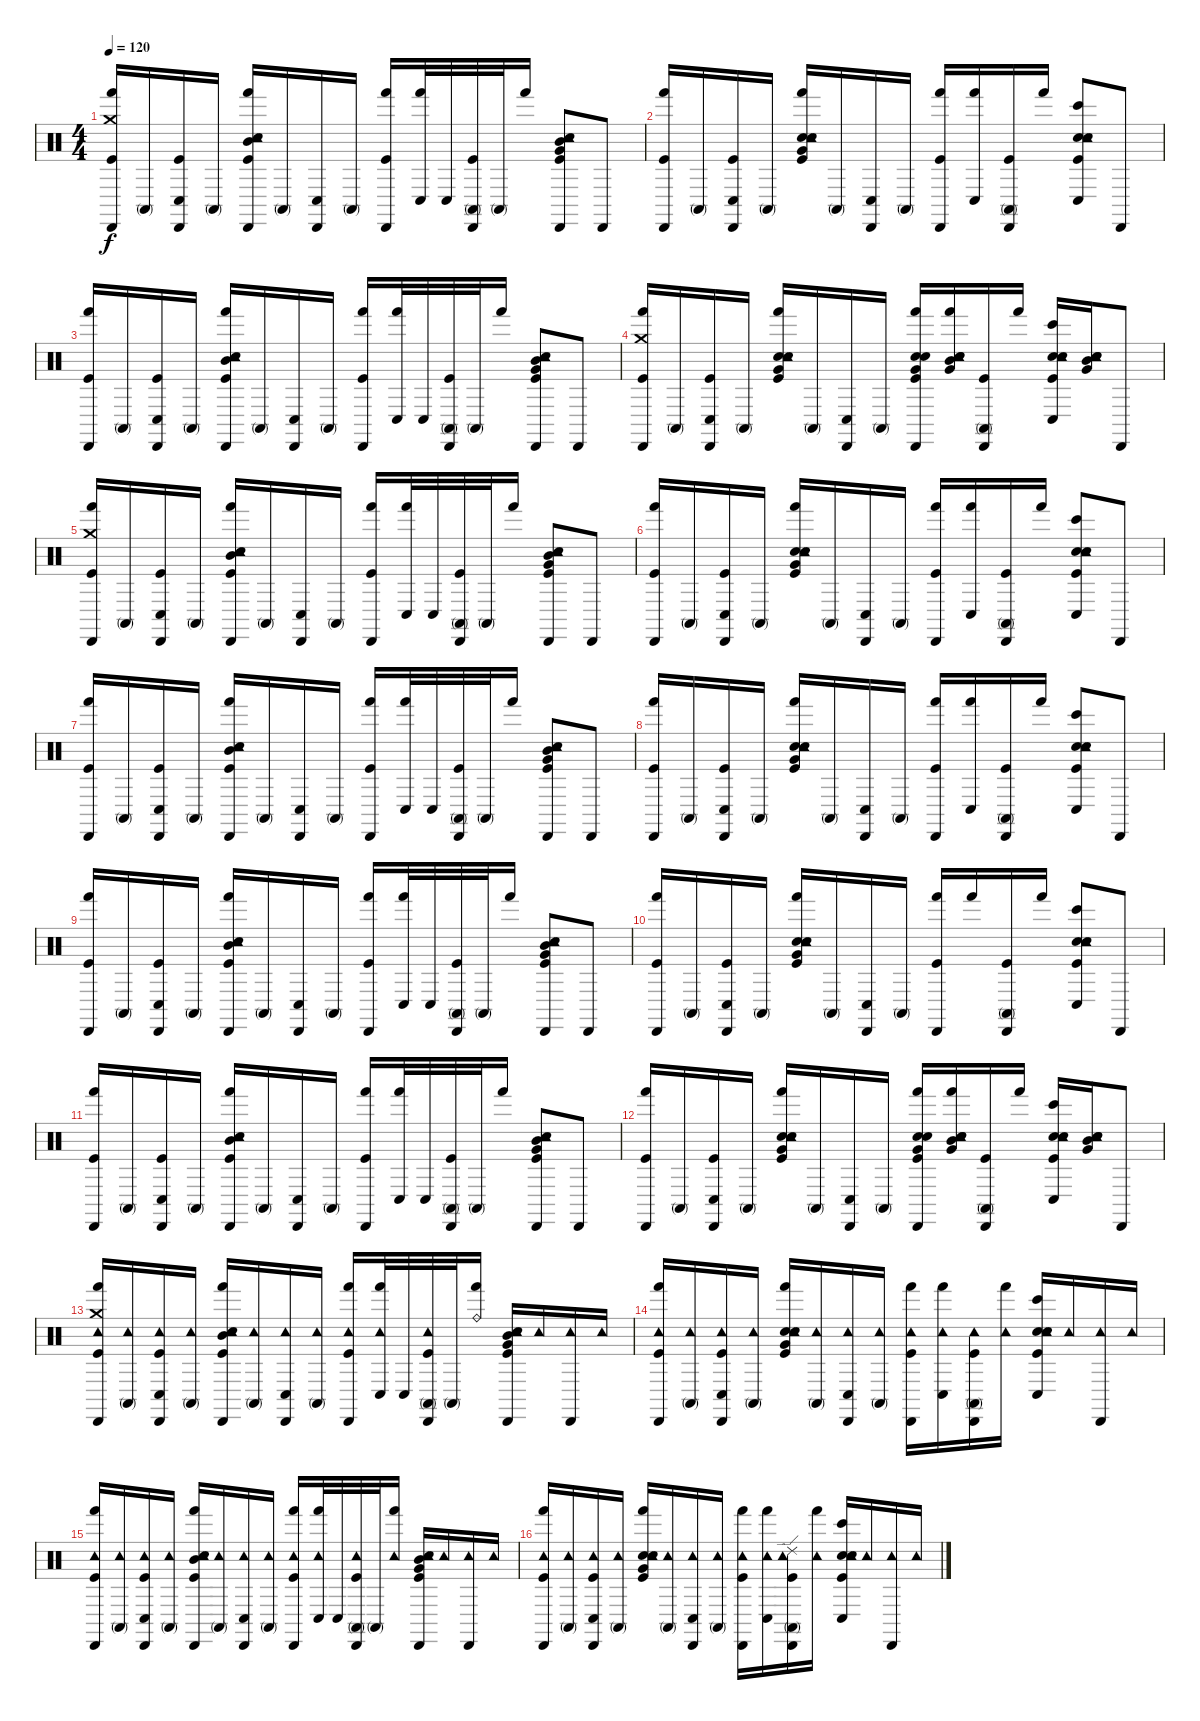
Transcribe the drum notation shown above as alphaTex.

\track "" {instrument percussion}
\staff {score}
\articulation defaults
\ts (4 4)
\tempo 120
\clef neutral
\ks c
("Hand (hit)" "Kick (hit)" "Cabasa (hit)" "Crash medium (hit)").16{dy f} "Conga high (mute)".16 ("Conga low (hit)" "Kick (hit)" "Cabasa (hit)").16 "Conga high (mute)".16 ("Hand (hit)" "Kick (hit)" "Tambourine (hit)" "Snare (hit) 2" "Cabasa (hit)" "Mid Tom (hit)").16 "Conga high (mute)".16 ("Conga low (hit)" "Cabasa (hit)").16 "Conga high (mute)".16 ("Hand (hit)" "Kick (hit)" "Cabasa (hit)").16 ("Conga low (hit)" "Hand (hit)").32 "Conga low (hit)".32 ("Conga high (mute)" "Kick (hit)" "Cabasa (hit)").32 "Conga high (mute)".32 "Hand (hit)".16 ("Kick (hit)" "Snare (hit) 2" "Tambourine (hit)" "Cabasa (hit)" "Mid Tom (hit)" "Very Low Tom (hit)").8 "Cabasa (hit)".8 |
("Hand (hit)" "Kick (hit)" "Cabasa (hit)").16 "Conga high (mute)".16 ("Conga low (hit)" "Kick (hit)" "Cabasa (hit)").16 "Conga high (mute)".16 ("Hand (hit)" "Kick (hit)" "Snare (hit) 2" "Tambourine (hit)" "Electric Snare (hit)" "Very Low Tom (hit)").16 "Conga high (mute)".16 ("Conga low (hit)" "Cabasa (hit)").16 "Conga high (mute)".16 ("Hand (hit)" "Kick (hit)" "Cabasa (hit)").16 ("Conga low (hit)" "Hand (hit)").16 ("Conga high (mute)" "Kick (hit)" "Cabasa (hit)").16 "Hand (hit)".16 ("Kick (hit)" "Snare (hit) 2" "Tambourine (hit)" "Bongo High (hit)" "Conga low (hit)" "Electric Snare (hit)").8 "Cabasa (hit)".8 |
("Hand (hit)" "Kick (hit)" "Cabasa (hit)").16 "Conga high (mute)".16 ("Conga low (hit)" "Kick (hit)" "Cabasa (hit)").16 "Conga high (mute)".16 ("Hand (hit)" "Kick (hit)" "Tambourine (hit)" "Snare (hit) 2" "Cabasa (hit)" "Mid Tom (hit)").16 "Conga high (mute)".16 ("Conga low (hit)" "Cabasa (hit)").16 "Conga high (mute)".16 ("Hand (hit)" "Kick (hit)" "Cabasa (hit)").16 ("Conga low (hit)" "Hand (hit)").32 "Conga low (hit)".32 ("Conga high (mute)" "Kick (hit)" "Cabasa (hit)").32 "Conga high (mute)".32 "Hand (hit)".16 ("Kick (hit)" "Snare (hit) 2" "Tambourine (hit)" "Cabasa (hit)" "Mid Tom (hit)" "Very Low Tom (hit)").8 "Cabasa (hit)".8 |
("Hand (hit)" "Kick (hit)" "Cabasa (hit)" "Crash medium (hit)").16 "Conga high (mute)".16 ("Conga low (hit)" "Kick (hit)" "Cabasa (hit)").16 "Conga high (mute)".16 ("Hand (hit)" "Kick (hit)" "Snare (hit) 2" "Tambourine (hit)" "Electric Snare (hit)" "Very Low Tom (hit)").16 "Conga high (mute)".16 ("Conga low (hit)" "Cabasa (hit)").16 "Conga high (mute)".16 ("Hand (hit)" "Kick (hit)" "Cabasa (hit)" "Electric Snare (hit)" "Snare (hit) 2" "Very Low Tom (hit)").16 ("Hand (hit)" "Snare (hit) 2" "Electric Snare (hit)" "Very Low Tom (hit)" "Mid Tom (hit)" "Tambourine (hit)").16 ("Conga high (mute)" "Kick (hit)" "Cabasa (hit)").16 "Hand (hit)".16 ("Kick (hit)" "Snare (hit) 2" "Tambourine (hit)" "Bongo High (hit)" "Conga low (hit)" "Electric Snare (hit)").16 ("Snare (hit) 2" "Electric Snare (hit)" "Very Low Tom (hit)" "Mid Tom (hit)" "Tambourine (hit)").16 "Cabasa (hit)".8 |
("Hand (hit)" "Kick (hit)" "Cabasa (hit)" "Crash medium (hit)").16 "Conga high (mute)".16 ("Conga low (hit)" "Kick (hit)" "Cabasa (hit)").16 "Conga high (mute)".16 ("Hand (hit)" "Kick (hit)" "Tambourine (hit)" "Snare (hit) 2" "Cabasa (hit)" "Mid Tom (hit)").16 "Conga high (mute)".16 ("Conga low (hit)" "Cabasa (hit)").16 "Conga high (mute)".16 ("Hand (hit)" "Kick (hit)" "Cabasa (hit)").16 ("Conga low (hit)" "Hand (hit)").32 "Conga low (hit)".32 ("Conga high (mute)" "Kick (hit)" "Cabasa (hit)").32 "Conga high (mute)".32 "Hand (hit)".16 ("Kick (hit)" "Snare (hit) 2" "Tambourine (hit)" "Cabasa (hit)" "Mid Tom (hit)" "Very Low Tom (hit)").8 "Cabasa (hit)".8 |
("Hand (hit)" "Kick (hit)" "Cabasa (hit)").16 "Conga high (mute)".16 ("Conga low (hit)" "Kick (hit)" "Cabasa (hit)").16 "Conga high (mute)".16 ("Hand (hit)" "Kick (hit)" "Snare (hit) 2" "Tambourine (hit)" "Electric Snare (hit)" "Very Low Tom (hit)").16 "Conga high (mute)".16 ("Conga low (hit)" "Cabasa (hit)").16 "Conga high (mute)".16 ("Hand (hit)" "Kick (hit)" "Cabasa (hit)").16 ("Conga low (hit)" "Hand (hit)").16 ("Conga high (mute)" "Kick (hit)" "Cabasa (hit)").16 "Hand (hit)".16 ("Kick (hit)" "Snare (hit) 2" "Tambourine (hit)" "Bongo High (hit)" "Conga low (hit)" "Electric Snare (hit)").8 "Cabasa (hit)".8 |
("Hand (hit)" "Kick (hit)" "Cabasa (hit)").16 "Conga high (mute)".16 ("Conga low (hit)" "Kick (hit)" "Cabasa (hit)").16 "Conga high (mute)".16 ("Hand (hit)" "Kick (hit)" "Tambourine (hit)" "Snare (hit) 2" "Cabasa (hit)" "Mid Tom (hit)").16 "Conga high (mute)".16 ("Conga low (hit)" "Cabasa (hit)").16 "Conga high (mute)".16 ("Hand (hit)" "Kick (hit)" "Cabasa (hit)").16 ("Conga low (hit)" "Hand (hit)").32 "Conga low (hit)".32 ("Conga high (mute)" "Kick (hit)" "Cabasa (hit)").32 "Conga high (mute)".32 "Hand (hit)".16 ("Kick (hit)" "Snare (hit) 2" "Tambourine (hit)" "Cabasa (hit)" "Mid Tom (hit)" "Very Low Tom (hit)").8 "Cabasa (hit)".8 |
("Hand (hit)" "Kick (hit)" "Cabasa (hit)").16 "Conga high (mute)".16 ("Conga low (hit)" "Kick (hit)" "Cabasa (hit)").16 "Conga high (mute)".16 ("Hand (hit)" "Kick (hit)" "Snare (hit) 2" "Tambourine (hit)" "Electric Snare (hit)" "Very Low Tom (hit)").16 "Conga high (mute)".16 ("Conga low (hit)" "Cabasa (hit)").16 "Conga high (mute)".16 ("Hand (hit)" "Kick (hit)" "Cabasa (hit)").16 ("Conga low (hit)" "Hand (hit)").16 ("Conga high (mute)" "Kick (hit)" "Cabasa (hit)").16 "Hand (hit)".16 ("Kick (hit)" "Snare (hit) 2" "Tambourine (hit)" "Bongo High (hit)" "Conga low (hit)" "Electric Snare (hit)").8 "Cabasa (hit)".8 |
("Hand (hit)" "Kick (hit)" "Cabasa (hit)").16 "Conga high (mute)".16 ("Conga low (hit)" "Kick (hit)" "Cabasa (hit)").16 "Conga high (mute)".16 ("Hand (hit)" "Kick (hit)" "Tambourine (hit)" "Snare (hit) 2" "Cabasa (hit)" "Mid Tom (hit)").16 "Conga high (mute)".16 ("Conga low (hit)" "Cabasa (hit)").16 "Conga high (mute)".16 ("Hand (hit)" "Kick (hit)" "Cabasa (hit)").16 ("Conga low (hit)" "Hand (hit)").32 "Conga low (hit)".32 ("Conga high (mute)" "Kick (hit)" "Cabasa (hit)").32 "Conga high (mute)".32 "Hand (hit)".16 ("Kick (hit)" "Snare (hit) 2" "Tambourine (hit)" "Cabasa (hit)" "Mid Tom (hit)" "Very Low Tom (hit)").8 "Cabasa (hit)".8 |
("Hand (hit)" "Kick (hit)" "Cabasa (hit)").16 "Conga high (mute)".16 ("Conga low (hit)" "Kick (hit)" "Cabasa (hit)").16 "Conga high (mute)".16 ("Hand (hit)" "Kick (hit)" "Snare (hit) 2" "Tambourine (hit)" "Electric Snare (hit)" "Very Low Tom (hit)").16 "Conga high (mute)".16 ("Conga low (hit)" "Cabasa (hit)").16 "Conga high (mute)".16 ("Hand (hit)" "Kick (hit)" "Cabasa (hit)").16 "Hand (hit)".16 ("Conga high (mute)" "Kick (hit)" "Cabasa (hit)").16 "Hand (hit)".16 ("Kick (hit)" "Snare (hit) 2" "Tambourine (hit)" "Bongo High (hit)" "Conga low (hit)" "Electric Snare (hit)").8 "Cabasa (hit)".8 |
("Hand (hit)" "Kick (hit)" "Cabasa (hit)").16 "Conga high (mute)".16 ("Conga low (hit)" "Kick (hit)" "Cabasa (hit)").16 "Conga high (mute)".16 ("Hand (hit)" "Kick (hit)" "Tambourine (hit)" "Snare (hit) 2" "Cabasa (hit)" "Mid Tom (hit)").16 "Conga high (mute)".16 ("Conga low (hit)" "Cabasa (hit)").16 "Conga high (mute)".16 ("Hand (hit)" "Kick (hit)" "Cabasa (hit)").16 ("Conga low (hit)" "Hand (hit)").32 "Conga low (hit)".32 ("Conga high (mute)" "Kick (hit)" "Cabasa (hit)").32 "Conga high (mute)".32 "Hand (hit)".16 ("Kick (hit)" "Snare (hit) 2" "Tambourine (hit)" "Cabasa (hit)" "Mid Tom (hit)" "Very Low Tom (hit)").8 "Cabasa (hit)".8 |
("Hand (hit)" "Kick (hit)" "Cabasa (hit)").16 "Conga high (mute)".16 ("Conga low (hit)" "Kick (hit)" "Cabasa (hit)").16 "Conga high (mute)".16 ("Hand (hit)" "Kick (hit)" "Snare (hit) 2" "Tambourine (hit)" "Electric Snare (hit)" "Very Low Tom (hit)").16 "Conga high (mute)".16 ("Conga low (hit)" "Cabasa (hit)").16 "Conga high (mute)".16 ("Hand (hit)" "Kick (hit)" "Cabasa (hit)" "Electric Snare (hit)" "Snare (hit) 2" "Very Low Tom (hit)").16 ("Hand (hit)" "Snare (hit) 2" "Electric Snare (hit)" "Very Low Tom (hit)" "Mid Tom (hit)" "Tambourine (hit)").16 ("Conga high (mute)" "Kick (hit)" "Cabasa (hit)").16 "Hand (hit)".16 ("Kick (hit)" "Snare (hit) 2" "Tambourine (hit)" "Bongo High (hit)" "Conga low (hit)" "Electric Snare (hit)").16 ("Snare (hit) 2" "Electric Snare (hit)" "Very Low Tom (hit)" "Mid Tom (hit)" "Tambourine (hit)").16 "Cabasa (hit)".8 |
("Hand (hit)" "Kick (hit)" "Cabasa (hit)" "Crash medium (hit)" "Tambourine (hit)").16 ("Conga high (mute)" "Tambourine (hit)").16 ("Conga low (hit)" "Kick (hit)" "Cabasa (hit)" "Tambourine (hit)").16 ("Conga high (mute)" "Tambourine (hit)").16 ("Hand (hit)" "Kick (hit)" "Tambourine (hit)" "Snare (hit) 2" "Cabasa (hit)" "Mid Tom (hit)").16 ("Conga high (mute)" "Tambourine (hit)").16 ("Conga low (hit)" "Cabasa (hit)" "Tambourine (hit)").16 ("Conga high (mute)" "Tambourine (hit)").16 ("Hand (hit)" "Kick (hit)" "Cabasa (hit)" "Tambourine (hit)").16 ("Conga low (hit)" "Hand (hit)" "Tambourine (hit)").32 "Conga low (hit)".32 ("Conga high (mute)" "Kick (hit)" "Cabasa (hit)" "Tambourine (hit)").32 "Conga high (mute)".32 ("Hand (hit)" "Ride (bell)").16 ("Kick (hit)" "Snare (hit) 2" "Tambourine (hit)" "Cabasa (hit)" "Mid Tom (hit)" "Very Low Tom (hit)").16 "Tambourine (hit)".16 ("Cabasa (hit)" "Tambourine (hit)").16 "Tambourine (hit)".16 |
("Hand (hit)" "Kick (hit)" "Cabasa (hit)" "Tambourine (hit)").16 ("Conga high (mute)" "Tambourine (hit)").16 ("Conga low (hit)" "Kick (hit)" "Cabasa (hit)" "Tambourine (hit)").16 ("Conga high (mute)" "Tambourine (hit)").16 ("Hand (hit)" "Kick (hit)" "Snare (hit) 2" "Tambourine (hit)" "Electric Snare (hit)" "Very Low Tom (hit)").16 ("Conga high (mute)" "Tambourine (hit)").16 ("Conga low (hit)" "Cabasa (hit)" "Tambourine (hit)").16 ("Conga high (mute)" "Tambourine (hit)").16 ("Hand (hit)" "Kick (hit)" "Cabasa (hit)" "Tambourine (hit)").16 ("Conga low (hit)" "Hand (hit)" "Tambourine (hit)").16 ("Conga high (mute)" "Kick (hit)" "Cabasa (hit)" "Tambourine (hit)").16 ("Hand (hit)" "Tambourine (hit)").16 ("Kick (hit)" "Snare (hit) 2" "Tambourine (hit)" "Bongo High (hit)" "Conga low (hit)" "Electric Snare (hit)").16 "Tambourine (hit)".16 ("Cabasa (hit)" "Tambourine (hit)").16 "Tambourine (hit)".16 |
("Hand (hit)" "Kick (hit)" "Cabasa (hit)" "Tambourine (hit)").16 ("Conga high (mute)" "Tambourine (hit)").16 ("Conga low (hit)" "Kick (hit)" "Cabasa (hit)" "Tambourine (hit)").16 ("Conga high (mute)" "Tambourine (hit)").16 ("Hand (hit)" "Kick (hit)" "Tambourine (hit)" "Snare (hit) 2" "Cabasa (hit)" "Mid Tom (hit)").16 ("Conga high (mute)" "Tambourine (hit)").16 ("Conga low (hit)" "Cabasa (hit)" "Tambourine (hit)").16 ("Conga high (mute)" "Tambourine (hit)").16 ("Hand (hit)" "Kick (hit)" "Cabasa (hit)" "Tambourine (hit)").16 ("Conga low (hit)" "Hand (hit)" "Tambourine (hit)").32 "Conga low (hit)".32 ("Conga high (mute)" "Kick (hit)" "Cabasa (hit)" "Tambourine (hit)").32 "Conga high (mute)".32 ("Hand (hit)" "Tambourine (hit)").16 ("Kick (hit)" "Snare (hit) 2" "Tambourine (hit)" "Cabasa (hit)" "Mid Tom (hit)" "Very Low Tom (hit)").16 "Tambourine (hit)".16 ("Cabasa (hit)" "Tambourine (hit)").16 "Tambourine (hit)".16 |
("Hand (hit)" "Kick (hit)" "Cabasa (hit)" "Tambourine (hit)").16 ("Conga high (mute)" "Tambourine (hit)").16 ("Conga low (hit)" "Kick (hit)" "Cabasa (hit)" "Tambourine (hit)").16 ("Conga high (mute)" "Tambourine (hit)").16 ("Hand (hit)" "Kick (hit)" "Snare (hit) 2" "Tambourine (hit)" "Electric Snare (hit)" "Very Low Tom (hit)").16 ("Conga high (mute)" "Tambourine (hit)").16 ("Conga low (hit)" "Cabasa (hit)" "Tambourine (hit)").16 ("Conga high (mute)" "Tambourine (hit)").16 ("Hand (hit)" "Kick (hit)" "Cabasa (hit)" "Tambourine (hit)").16 ("Conga low (hit)" "Hand (hit)" "Tambourine (hit)").16 ("Conga high (mute)" "Kick (hit)" "Cabasa (hit)" "Ride (edge) 2" "Tambourine (hit)").16 ("Hand (hit)" "Tambourine (hit)").16 ("Kick (hit)" "Snare (hit) 2" "Tambourine (hit)" "Bongo High (hit)" "Conga low (hit)" "Electric Snare (hit)").16 "Tambourine (hit)".16 ("Cabasa (hit)" "Tambourine (hit)").16 "Tambourine (hit)".16
